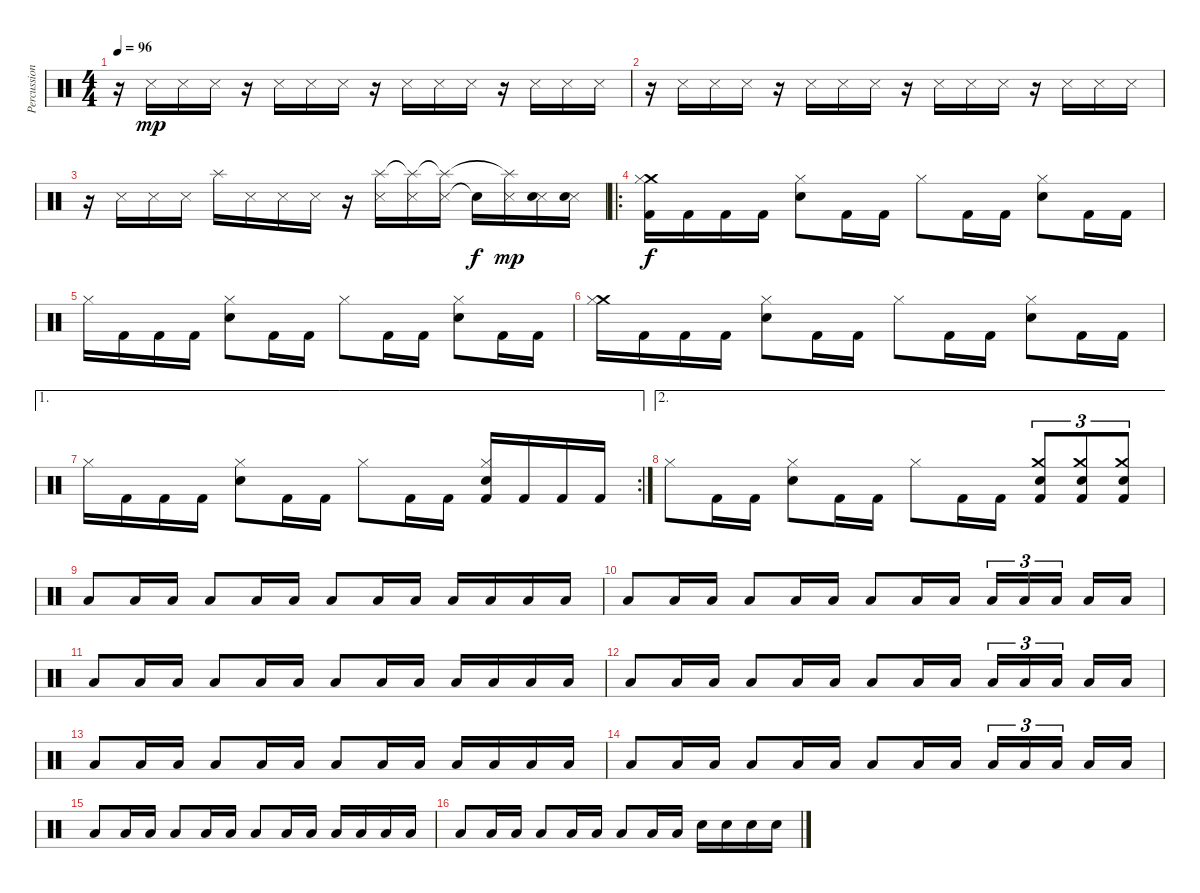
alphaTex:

\track ("Percussion" "Percussion") {instrument percussion bank 255}
\staff {score}
\articulation defaults
\ts (4 4)
\tempo 96
\clef neutral
\ks c
r.16{dy mp} "Snare (side stick) 3".16 "Snare (side stick) 3".16 "Snare (side stick) 3".16 r.16 "Snare (side stick) 3".16 "Snare (side stick) 3".16 "Snare (side stick) 3".16 r.16 "Snare (side stick) 3".16 "Snare (side stick) 3".16 "Snare (side stick) 3".16 r.16 "Snare (side stick) 3".16 "Snare (side stick) 3".16 "Snare (side stick) 3".16 |
r.16 "Snare (side stick) 3".16 "Snare (side stick) 3".16 "Snare (side stick) 3".16 r.16 "Snare (side stick) 3".16 "Snare (side stick) 3".16 "Snare (side stick) 3".16 r.16 "Snare (side stick) 3".16 "Snare (side stick) 3".16 "Snare (side stick) 3".16 r.16 "Snare (side stick) 3".16 "Snare (side stick) 3".16 "Snare (side stick) 3".16 |
r.16 "Snare (side stick) 3".16 "Snare (side stick) 3".16 "Snare (side stick) 3".16 "Splash (hit)".16 "Snare (side stick) 3".16 "Snare (side stick) 3".16 "Snare (side stick) 3".16 r.16 ("Snare (side stick) 3" "Splash (hit)").16 ("Snare (side stick) 3" "Splash (hit)"{t}).16 ("Snare (side stick) 3" "Splash (hit)"{t}).16 "Snare (hit)"{t}.16{dy f} ("Snare (side stick) 3" "Splash (hit)"{t}).16{dy mp} ("Snare (side stick) 3" "Electric Snare (hit)").16 ("Snare (side stick) 3" "Electric Snare (hit)").16 |
\ro
("Crash medium (hit)" "Hi-Hat (closed)" "Kick (hit) 2").16{dy f} "Kick (hit) 2".16 "Kick (hit) 2".16 "Kick (hit) 2".16 ("Electric Snare (hit)" "Hi-Hat (closed)").8 "Kick (hit) 2".16 "Kick (hit) 2".16 "Hi-Hat (closed)".8 "Kick (hit) 2".16 "Kick (hit) 2".16 ("Electric Snare (hit)" "Hi-Hat (closed)").8 "Kick (hit) 2".16 "Kick (hit) 2".16 |
"Hi-Hat (closed)".16 "Kick (hit) 2".16 "Kick (hit) 2".16 "Kick (hit) 2".16 ("Electric Snare (hit)" "Hi-Hat (closed)").8 "Kick (hit) 2".16 "Kick (hit) 2".16 "Hi-Hat (closed)".8 "Kick (hit) 2".16 "Kick (hit) 2".16 ("Electric Snare (hit)" "Hi-Hat (closed)").8 "Kick (hit) 2".16 "Kick (hit) 2".16 |
("Crash medium (hit)" "Hi-Hat (closed)").16 "Kick (hit) 2".16 "Kick (hit) 2".16 "Kick (hit) 2".16 ("Electric Snare (hit)" "Hi-Hat (closed)").8 "Kick (hit) 2".16 "Kick (hit) 2".16 "Hi-Hat (closed)".8 "Kick (hit) 2".16 "Kick (hit) 2".16 ("Electric Snare (hit)" "Hi-Hat (closed)").8 "Kick (hit) 2".16 "Kick (hit) 2".16 |
\ae 1
\rc 2 "Hi-Hat (closed)".16 "Kick (hit) 2".16 "Kick (hit) 2".16 "Kick (hit) 2".16
("Electric Snare (hit)" "Hi-Hat (closed)").8 "Kick (hit) 2".16 "Kick (hit) 2".16 "Hi-Hat (closed)".8 "Kick (hit) 2".16 "Kick (hit) 2".16 ("Electric Snare (hit)" "Hi-Hat (closed)" "Kick (hit) 2").16 "Kick (hit) 2".16 "Kick (hit) 2".16 "Kick (hit) 2".16 |
\ae 2 "Hi-Hat (closed)".8 "Kick (hit) 2".16 "Kick (hit) 2".16
("Hi-Hat (closed)" "Electric Snare (hit)").8 "Kick (hit) 2".16 "Kick (hit) 2".16 "Hi-Hat (closed)".8 "Kick (hit) 2".16 "Kick (hit) 2".16 ("Crash medium (hit)" "Electric Snare (hit)" "Kick (hit) 2").8{tu (3 2)} ("Crash medium (hit)" "Electric Snare (hit)" "Kick (hit) 2").8{tu (3 2)} ("Crash medium (hit)" "Electric Snare (hit)" "Kick (hit) 2").8{tu (3 2)} |
"Low Floor Tom (hit)".8 "Low Floor Tom (hit)".16 "Low Floor Tom (hit)".16 "Low Floor Tom (hit)".8 "Low Floor Tom (hit)".16 "Low Floor Tom (hit)".16 "Low Floor Tom (hit)".8 "Low Floor Tom (hit)".16 "Low Floor Tom (hit)".16 "Low Floor Tom (hit)".16 "Low Floor Tom (hit)".16 "Low Floor Tom (hit)".16 "Low Floor Tom (hit)".16 |
"Low Floor Tom (hit)".8 "Low Floor Tom (hit)".16 "Low Floor Tom (hit)".16 "Low Floor Tom (hit)".8 "Low Floor Tom (hit)".16 "Low Floor Tom (hit)".16 "Low Floor Tom (hit)".8 "Low Floor Tom (hit)".16 "Low Floor Tom (hit)".16 "Low Floor Tom (hit)".16{tu (3 2)} "Low Floor Tom (hit)".16{tu (3 2)} "Low Floor Tom (hit)".16{tu (3 2) beam splitsecondary} "Low Floor Tom (hit)".16 "Low Floor Tom (hit)".16 |
"Low Floor Tom (hit)".8 "Low Floor Tom (hit)".16 "Low Floor Tom (hit)".16 "Low Floor Tom (hit)".8 "Low Floor Tom (hit)".16 "Low Floor Tom (hit)".16 "Low Floor Tom (hit)".8 "Low Floor Tom (hit)".16 "Low Floor Tom (hit)".16 "Low Floor Tom (hit)".16 "Low Floor Tom (hit)".16 "Low Floor Tom (hit)".16 "Low Floor Tom (hit)".16 |
"Low Floor Tom (hit)".8 "Low Floor Tom (hit)".16 "Low Floor Tom (hit)".16 "Low Floor Tom (hit)".8 "Low Floor Tom (hit)".16 "Low Floor Tom (hit)".16 "Low Floor Tom (hit)".8 "Low Floor Tom (hit)".16 "Low Floor Tom (hit)".16 "Low Floor Tom (hit)".16{tu (3 2)} "Low Floor Tom (hit)".16{tu (3 2)} "Low Floor Tom (hit)".16{tu (3 2) beam splitsecondary} "Low Floor Tom (hit)".16 "Low Floor Tom (hit)".16 |
"Low Floor Tom (hit)".8 "Low Floor Tom (hit)".16 "Low Floor Tom (hit)".16 "Low Floor Tom (hit)".8 "Low Floor Tom (hit)".16 "Low Floor Tom (hit)".16 "Low Floor Tom (hit)".8 "Low Floor Tom (hit)".16 "Low Floor Tom (hit)".16 "Low Floor Tom (hit)".16 "Low Floor Tom (hit)".16 "Low Floor Tom (hit)".16 "Low Floor Tom (hit)".16 |
"Low Floor Tom (hit)".8 "Low Floor Tom (hit)".16 "Low Floor Tom (hit)".16 "Low Floor Tom (hit)".8 "Low Floor Tom (hit)".16 "Low Floor Tom (hit)".16 "Low Floor Tom (hit)".8 "Low Floor Tom (hit)".16 "Low Floor Tom (hit)".16 "Low Floor Tom (hit)".16{tu (3 2)} "Low Floor Tom (hit)".16{tu (3 2)} "Low Floor Tom (hit)".16{tu (3 2) beam splitsecondary} "Low Floor Tom (hit)".16 "Low Floor Tom (hit)".16 |
"Low Floor Tom (hit)".8 "Low Floor Tom (hit)".16 "Low Floor Tom (hit)".16 "Low Floor Tom (hit)".8 "Low Floor Tom (hit)".16 "Low Floor Tom (hit)".16 "Low Floor Tom (hit)".8 "Low Floor Tom (hit)".16 "Low Floor Tom (hit)".16 "Low Floor Tom (hit)".16 "Low Floor Tom (hit)".16 "Low Floor Tom (hit)".16 "Low Floor Tom (hit)".16 |
"Low Floor Tom (hit)".8 "Low Floor Tom (hit)".16 "Low Floor Tom (hit)".16 "Low Floor Tom (hit)".8 "Low Floor Tom (hit)".16 "Low Floor Tom (hit)".16 "Low Floor Tom (hit)".8 "Low Floor Tom (hit)".16 "Low Floor Tom (hit)".16 "Electric Snare (hit)".16 "Electric Snare (hit)".16 "Electric Snare (hit)".16 "Electric Snare (hit)".16
